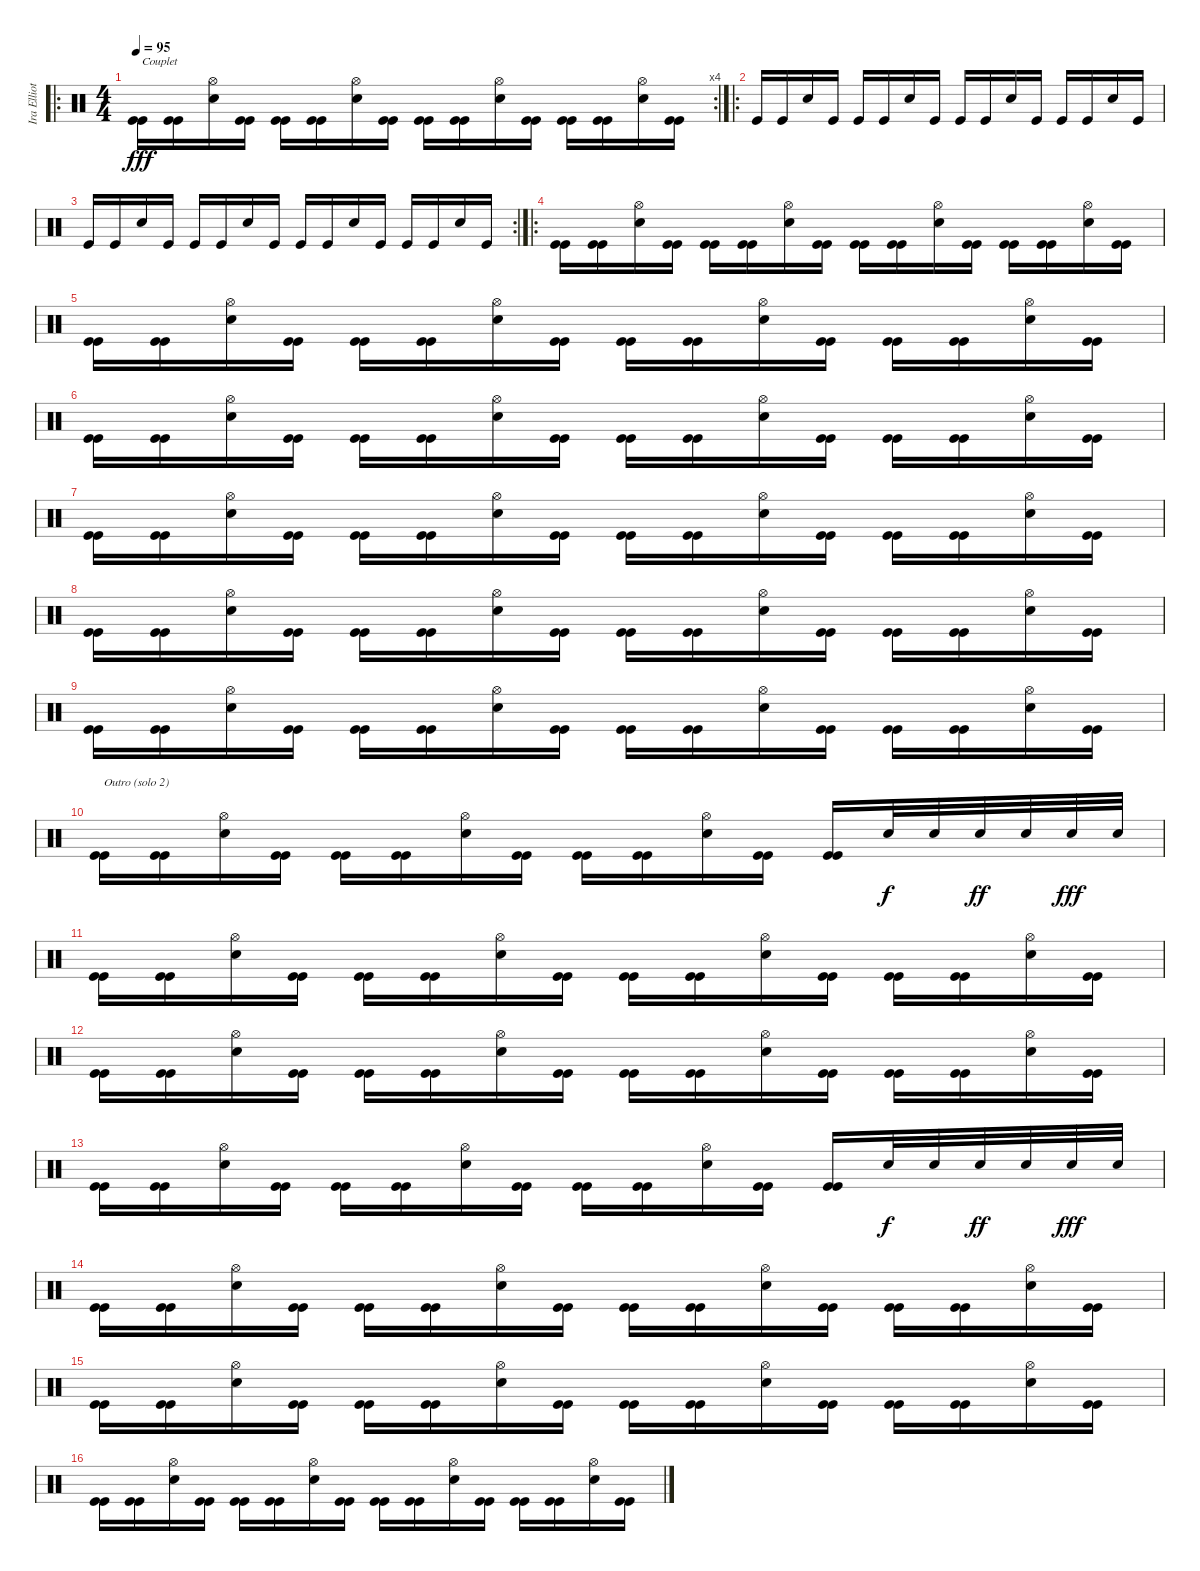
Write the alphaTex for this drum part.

\track ("Ira Elliott" "Ira Elliot") {instrument percussion}
\staff {score}
\articulation defaults
\ro
\rc 4
\ts (4 4)
\tempo 95
\clef neutral
\ks c
("Kick (hit)" "Kick (hit)").16{txt "Couplet" dy fff} ("Kick (hit)" "Kick (hit)").16 ("Snare (hit) 2" "Hi-Hat (open)").16 ("Kick (hit)" "Kick (hit)").16 ("Kick (hit)" "Kick (hit)").16 ("Kick (hit)" "Kick (hit)").16 ("Snare (hit) 2" "Hi-Hat (open)").16 ("Kick (hit)" "Kick (hit)").16 ("Kick (hit)" "Kick (hit)").16 ("Kick (hit)" "Kick (hit)").16 ("Snare (hit) 2" "Hi-Hat (open)").16 ("Kick (hit)" "Kick (hit)").16 ("Kick (hit)" "Kick (hit)").16 ("Kick (hit)" "Kick (hit)").16 ("Snare (hit) 2" "Hi-Hat (open)").16 ("Kick (hit)" "Kick (hit)").16 |
\ro "Kick (hit)".16 "Kick (hit)".16 "Snare (hit) 2".16 "Kick (hit)".16 "Kick (hit)".16 "Kick (hit)".16 "Snare (hit) 2".16 "Kick (hit)".16 "Kick (hit)".16 "Kick (hit)".16 "Snare (hit) 2".16 "Kick (hit)".16 "Kick (hit)".16 "Kick (hit)".16 "Snare (hit) 2".16 "Kick (hit)".16
|
\rc 2 "Kick (hit)".16 "Kick (hit)".16 "Snare (hit) 2".16 "Kick (hit)".16 "Kick (hit)".16 "Kick (hit)".16 "Snare (hit) 2".16 "Kick (hit)".16 "Kick (hit)".16 "Kick (hit)".16 "Snare (hit) 2".16 "Kick (hit)".16 "Kick (hit)".16 "Kick (hit)".16 "Snare (hit) 2".16 "Kick (hit)".16
|
\ro
("Kick (hit)" "Kick (hit)").16 ("Kick (hit)" "Kick (hit)").16 ("Snare (hit) 2" "Hi-Hat (open)").16 ("Kick (hit)" "Kick (hit)").16 ("Kick (hit)" "Kick (hit)").16 ("Kick (hit)" "Kick (hit)").16 ("Snare (hit) 2" "Hi-Hat (open)").16 ("Kick (hit)" "Kick (hit)").16 ("Kick (hit)" "Kick (hit)").16 ("Kick (hit)" "Kick (hit)").16 ("Snare (hit) 2" "Hi-Hat (open)").16 ("Kick (hit)" "Kick (hit)").16 ("Kick (hit)" "Kick (hit)").16 ("Kick (hit)" "Kick (hit)").16 ("Snare (hit) 2" "Hi-Hat (open)").16 ("Kick (hit)" "Kick (hit)").16 |
("Kick (hit)" "Kick (hit)").16 ("Kick (hit)" "Kick (hit)").16 ("Snare (hit) 2" "Hi-Hat (open)").16 ("Kick (hit)" "Kick (hit)").16 ("Kick (hit)" "Kick (hit)").16 ("Kick (hit)" "Kick (hit)").16 ("Snare (hit) 2" "Hi-Hat (open)").16 ("Kick (hit)" "Kick (hit)").16 ("Kick (hit)" "Kick (hit)").16 ("Kick (hit)" "Kick (hit)").16 ("Snare (hit) 2" "Hi-Hat (open)").16 ("Kick (hit)" "Kick (hit)").16 ("Kick (hit)" "Kick (hit)").16 ("Kick (hit)" "Kick (hit)").16 ("Snare (hit) 2" "Hi-Hat (open)").16 ("Kick (hit)" "Kick (hit)").16 |
("Kick (hit)" "Kick (hit)").16 ("Kick (hit)" "Kick (hit)").16 ("Snare (hit) 2" "Hi-Hat (open)").16 ("Kick (hit)" "Kick (hit)").16 ("Kick (hit)" "Kick (hit)").16 ("Kick (hit)" "Kick (hit)").16 ("Snare (hit) 2" "Hi-Hat (open)").16 ("Kick (hit)" "Kick (hit)").16 ("Kick (hit)" "Kick (hit)").16 ("Kick (hit)" "Kick (hit)").16 ("Snare (hit) 2" "Hi-Hat (open)").16 ("Kick (hit)" "Kick (hit)").16 ("Kick (hit)" "Kick (hit)").16 ("Kick (hit)" "Kick (hit)").16 ("Snare (hit) 2" "Hi-Hat (open)").16 ("Kick (hit)" "Kick (hit)").16 |
("Kick (hit)" "Kick (hit)").16 ("Kick (hit)" "Kick (hit)").16 ("Snare (hit) 2" "Hi-Hat (open)").16 ("Kick (hit)" "Kick (hit)").16 ("Kick (hit)" "Kick (hit)").16 ("Kick (hit)" "Kick (hit)").16 ("Snare (hit) 2" "Hi-Hat (open)").16 ("Kick (hit)" "Kick (hit)").16 ("Kick (hit)" "Kick (hit)").16 ("Kick (hit)" "Kick (hit)").16 ("Snare (hit) 2" "Hi-Hat (open)").16 ("Kick (hit)" "Kick (hit)").16 ("Kick (hit)" "Kick (hit)").16 ("Kick (hit)" "Kick (hit)").16 ("Snare (hit) 2" "Hi-Hat (open)").16 ("Kick (hit)" "Kick (hit)").16 |
("Kick (hit)" "Kick (hit)").16 ("Kick (hit)" "Kick (hit)").16 ("Snare (hit) 2" "Hi-Hat (open)").16 ("Kick (hit)" "Kick (hit)").16 ("Kick (hit)" "Kick (hit)").16 ("Kick (hit)" "Kick (hit)").16 ("Snare (hit) 2" "Hi-Hat (open)").16 ("Kick (hit)" "Kick (hit)").16 ("Kick (hit)" "Kick (hit)").16 ("Kick (hit)" "Kick (hit)").16 ("Snare (hit) 2" "Hi-Hat (open)").16 ("Kick (hit)" "Kick (hit)").16 ("Kick (hit)" "Kick (hit)").16 ("Kick (hit)" "Kick (hit)").16 ("Snare (hit) 2" "Hi-Hat (open)").16 ("Kick (hit)" "Kick (hit)").16 |
("Kick (hit)" "Kick (hit)").16 ("Kick (hit)" "Kick (hit)").16 ("Snare (hit) 2" "Hi-Hat (open)").16 ("Kick (hit)" "Kick (hit)").16 ("Kick (hit)" "Kick (hit)").16 ("Kick (hit)" "Kick (hit)").16 ("Snare (hit) 2" "Hi-Hat (open)").16 ("Kick (hit)" "Kick (hit)").16 ("Kick (hit)" "Kick (hit)").16 ("Kick (hit)" "Kick (hit)").16 ("Snare (hit) 2" "Hi-Hat (open)").16 ("Kick (hit)" "Kick (hit)").16 ("Kick (hit)" "Kick (hit)").16 ("Kick (hit)" "Kick (hit)").16 ("Snare (hit) 2" "Hi-Hat (open)").16 ("Kick (hit)" "Kick (hit)").16 |
("Kick (hit)" "Kick (hit)").16{txt "Outro (solo 2)"} ("Kick (hit)" "Kick (hit)").16 ("Snare (hit) 2" "Hi-Hat (open)").16 ("Kick (hit)" "Kick (hit)").16 ("Kick (hit)" "Kick (hit)").16 ("Kick (hit)" "Kick (hit)").16 ("Snare (hit) 2" "Hi-Hat (open)").16 ("Kick (hit)" "Kick (hit)").16 ("Kick (hit)" "Kick (hit)").16 ("Kick (hit)" "Kick (hit)").16 ("Snare (hit) 2" "Hi-Hat (open)").16 ("Kick (hit)" "Kick (hit)").16 ("Kick (hit)" "Kick (hit)").16 "Snare (hit) 2".32{dy f} "Snare (hit) 2".32 "Snare (hit) 2".32{dy ff} "Snare (hit) 2".32 "Snare (hit) 2".32{dy fff} "Snare (hit) 2".32 |
("Kick (hit)" "Kick (hit)").16 ("Kick (hit)" "Kick (hit)").16 ("Snare (hit) 2" "Hi-Hat (open)").16 ("Kick (hit)" "Kick (hit)").16 ("Kick (hit)" "Kick (hit)").16 ("Kick (hit)" "Kick (hit)").16 ("Snare (hit) 2" "Hi-Hat (open)").16 ("Kick (hit)" "Kick (hit)").16 ("Kick (hit)" "Kick (hit)").16 ("Kick (hit)" "Kick (hit)").16 ("Snare (hit) 2" "Hi-Hat (open)").16 ("Kick (hit)" "Kick (hit)").16 ("Kick (hit)" "Kick (hit)").16 ("Kick (hit)" "Kick (hit)").16 ("Snare (hit) 2" "Hi-Hat (open)").16 ("Kick (hit)" "Kick (hit)").16 |
("Kick (hit)" "Kick (hit)").16 ("Kick (hit)" "Kick (hit)").16 ("Snare (hit) 2" "Hi-Hat (open)").16 ("Kick (hit)" "Kick (hit)").16 ("Kick (hit)" "Kick (hit)").16 ("Kick (hit)" "Kick (hit)").16 ("Snare (hit) 2" "Hi-Hat (open)").16 ("Kick (hit)" "Kick (hit)").16 ("Kick (hit)" "Kick (hit)").16 ("Kick (hit)" "Kick (hit)").16 ("Snare (hit) 2" "Hi-Hat (open)").16 ("Kick (hit)" "Kick (hit)").16 ("Kick (hit)" "Kick (hit)").16 ("Kick (hit)" "Kick (hit)").16 ("Snare (hit) 2" "Hi-Hat (open)").16 ("Kick (hit)" "Kick (hit)").16 |
("Kick (hit)" "Kick (hit)").16 ("Kick (hit)" "Kick (hit)").16 ("Snare (hit) 2" "Hi-Hat (open)").16 ("Kick (hit)" "Kick (hit)").16 ("Kick (hit)" "Kick (hit)").16 ("Kick (hit)" "Kick (hit)").16 ("Snare (hit) 2" "Hi-Hat (open)").16 ("Kick (hit)" "Kick (hit)").16 ("Kick (hit)" "Kick (hit)").16 ("Kick (hit)" "Kick (hit)").16 ("Snare (hit) 2" "Hi-Hat (open)").16 ("Kick (hit)" "Kick (hit)").16 ("Kick (hit)" "Kick (hit)").16 "Snare (hit) 2".32{dy f} "Snare (hit) 2".32 "Snare (hit) 2".32{dy ff} "Snare (hit) 2".32 "Snare (hit) 2".32{dy fff} "Snare (hit) 2".32 |
("Kick (hit)" "Kick (hit)").16 ("Kick (hit)" "Kick (hit)").16 ("Snare (hit) 2" "Hi-Hat (open)").16 ("Kick (hit)" "Kick (hit)").16 ("Kick (hit)" "Kick (hit)").16 ("Kick (hit)" "Kick (hit)").16 ("Snare (hit) 2" "Hi-Hat (open)").16 ("Kick (hit)" "Kick (hit)").16 ("Kick (hit)" "Kick (hit)").16 ("Kick (hit)" "Kick (hit)").16 ("Snare (hit) 2" "Hi-Hat (open)").16 ("Kick (hit)" "Kick (hit)").16 ("Kick (hit)" "Kick (hit)").16 ("Kick (hit)" "Kick (hit)").16 ("Snare (hit) 2" "Hi-Hat (open)").16 ("Kick (hit)" "Kick (hit)").16 |
("Kick (hit)" "Kick (hit)").16 ("Kick (hit)" "Kick (hit)").16 ("Snare (hit) 2" "Hi-Hat (open)").16 ("Kick (hit)" "Kick (hit)").16 ("Kick (hit)" "Kick (hit)").16 ("Kick (hit)" "Kick (hit)").16 ("Snare (hit) 2" "Hi-Hat (open)").16 ("Kick (hit)" "Kick (hit)").16 ("Kick (hit)" "Kick (hit)").16 ("Kick (hit)" "Kick (hit)").16 ("Snare (hit) 2" "Hi-Hat (open)").16 ("Kick (hit)" "Kick (hit)").16 ("Kick (hit)" "Kick (hit)").16 ("Kick (hit)" "Kick (hit)").16 ("Snare (hit) 2" "Hi-Hat (open)").16 ("Kick (hit)" "Kick (hit)").16 |
("Kick (hit)" "Kick (hit)").16 ("Kick (hit)" "Kick (hit)").16 ("Snare (hit) 2" "Hi-Hat (open)").16 ("Kick (hit)" "Kick (hit)").16 ("Kick (hit)" "Kick (hit)").16 ("Kick (hit)" "Kick (hit)").16 ("Snare (hit) 2" "Hi-Hat (open)").16 ("Kick (hit)" "Kick (hit)").16 ("Kick (hit)" "Kick (hit)").16 ("Kick (hit)" "Kick (hit)").16 ("Snare (hit) 2" "Hi-Hat (open)").16 ("Kick (hit)" "Kick (hit)").16 ("Kick (hit)" "Kick (hit)").16 ("Kick (hit)" "Kick (hit)").16 ("Snare (hit) 2" "Hi-Hat (open)").16 ("Kick (hit)" "Kick (hit)").16
